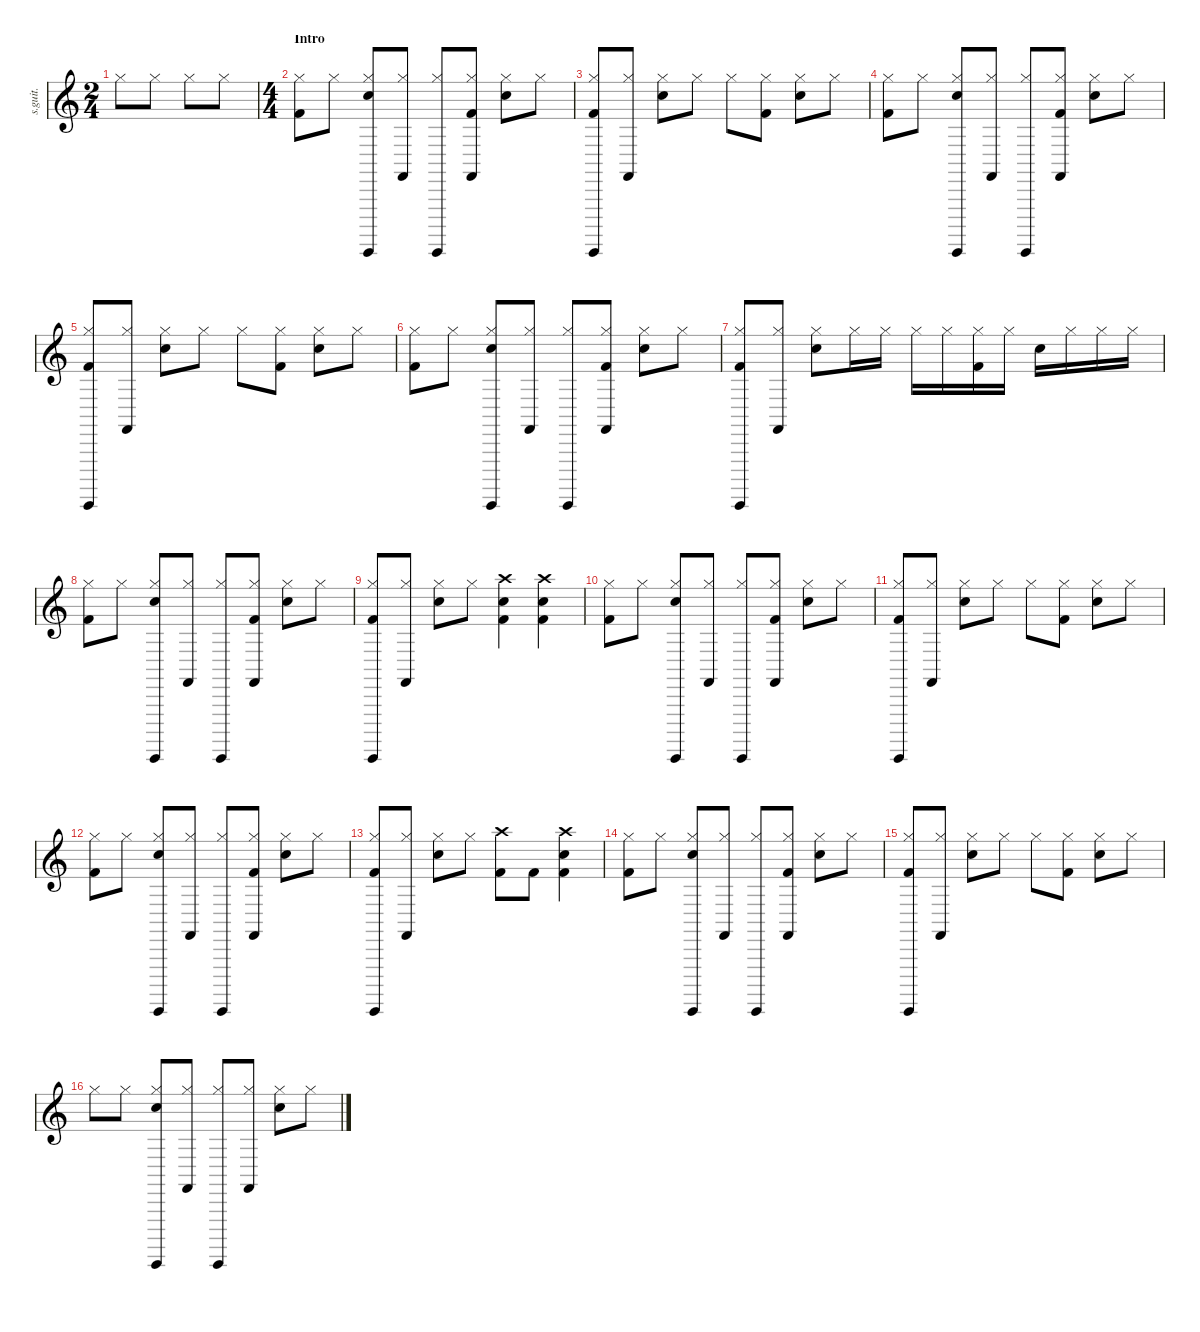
\defaultSystemsLayout 4
\hideDynamics
\bracketExtendMode nobrackets
\track ("Drums (Russel Hobbs)" "s.guit.") {instrument percussion}
\staff {score}
\articulation defaults
\ts (2 4)
\beaming (8 2 2 2 2)
\tempo (139 hide)
\clef g2
\ks c "Hi-Hat (closed)".8{lyrics (0 "") lyrics (1 "") lyrics (2 "") lyrics (3 "") lyrics (4 "") dy f} "Hi-Hat (closed)".8{lyrics (0 "") lyrics (1 "") lyrics (2 "") lyrics (3 "") lyrics (4 "")} "Hi-Hat (closed)".8{lyrics (0 "") lyrics (1 "") lyrics (2 "") lyrics (3 "") lyrics (4 "")} "Hi-Hat (closed)".8{lyrics (0 "") lyrics (1 "") lyrics (2 "") lyrics (3 "") lyrics (4 "")}
|
\ts (4 4)
\beaming (8 2 2 2 2)
\section ("" "Intro")
("Hi-Hat (closed)" "Kick (hit) 2").8{lyrics (0 "") lyrics (1 "") lyrics (2 "") lyrics (3 "") lyrics (4 "")} "Hi-Hat (closed)".8{lyrics (0 "") lyrics (1 "") lyrics (2 "") lyrics (3 "") lyrics (4 "")} ("Hi-Hat (closed)" "Guiro (hit)" "Snare (hit) 2").8{lyrics (0 "") lyrics (1 "") lyrics (2 "") lyrics (3 "") lyrics (4 "") dy ff} ("Hi-Hat (closed)" "Castanets (hit)").8{lyrics (0 "") lyrics (1 "") lyrics (2 "") lyrics (3 "") lyrics (4 "")} ("Hi-Hat (closed)" "Guiro (hit)").8{lyrics (0 "") lyrics (1 "") lyrics (2 "") lyrics (3 "") lyrics (4 "")} ("Hi-Hat (closed)" "Castanets (hit)" "Kick (hit) 2").8{lyrics (0 "") lyrics (1 "") lyrics (2 "") lyrics (3 "") lyrics (4 "")} ("Hi-Hat (closed)" "Snare (hit) 2").8{lyrics (0 "") lyrics (1 "") lyrics (2 "") lyrics (3 "") lyrics (4 "")} "Hi-Hat (closed)".8{lyrics (0 "") lyrics (1 "") lyrics (2 "") lyrics (3 "") lyrics (4 "") dy f} |
("Hi-Hat (closed)" "Guiro (hit)" "Kick (hit) 2").8{lyrics (0 "") lyrics (1 "") lyrics (2 "") lyrics (3 "") lyrics (4 "")} ("Hi-Hat (closed)" "Castanets (hit)").8{lyrics (0 "") lyrics (1 "") lyrics (2 "") lyrics (3 "") lyrics (4 "")} ("Hi-Hat (closed)" "Snare (hit) 2").8{lyrics (0 "") lyrics (1 "") lyrics (2 "") lyrics (3 "") lyrics (4 "")} "Hi-Hat (closed)".8{lyrics (0 "") lyrics (1 "") lyrics (2 "") lyrics (3 "") lyrics (4 "")} "Hi-Hat (closed)".8{lyrics (0 "") lyrics (1 "") lyrics (2 "") lyrics (3 "") lyrics (4 "")} ("Hi-Hat (closed)" "Kick (hit) 2").8{lyrics (0 "") lyrics (1 "") lyrics (2 "") lyrics (3 "") lyrics (4 "")} ("Hi-Hat (closed)" "Snare (hit) 2").8{lyrics (0 "") lyrics (1 "") lyrics (2 "") lyrics (3 "") lyrics (4 "")} "Hi-Hat (closed)".8{lyrics (0 "") lyrics (1 "") lyrics (2 "") lyrics (3 "") lyrics (4 "")} |
("Hi-Hat (closed)" "Kick (hit) 2").8{lyrics (0 "") lyrics (1 "") lyrics (2 "") lyrics (3 "") lyrics (4 "")} "Hi-Hat (closed)".8{lyrics (0 "") lyrics (1 "") lyrics (2 "") lyrics (3 "") lyrics (4 "")} ("Hi-Hat (closed)" "Guiro (hit)" "Snare (hit) 2").8{lyrics (0 "") lyrics (1 "") lyrics (2 "") lyrics (3 "") lyrics (4 "") dy ff} ("Hi-Hat (closed)" "Castanets (hit)").8{lyrics (0 "") lyrics (1 "") lyrics (2 "") lyrics (3 "") lyrics (4 "")} ("Hi-Hat (closed)" "Guiro (hit)").8{lyrics (0 "") lyrics (1 "") lyrics (2 "") lyrics (3 "") lyrics (4 "")} ("Hi-Hat (closed)" "Castanets (hit)" "Kick (hit) 2").8{lyrics (0 "") lyrics (1 "") lyrics (2 "") lyrics (3 "") lyrics (4 "")} ("Hi-Hat (closed)" "Snare (hit) 2").8{lyrics (0 "") lyrics (1 "") lyrics (2 "") lyrics (3 "") lyrics (4 "")} "Hi-Hat (closed)".8{lyrics (0 "") lyrics (1 "") lyrics (2 "") lyrics (3 "") lyrics (4 "") dy f} |
("Hi-Hat (closed)" "Guiro (hit)" "Kick (hit) 2").8{lyrics (0 "") lyrics (1 "") lyrics (2 "") lyrics (3 "") lyrics (4 "")} ("Hi-Hat (closed)" "Castanets (hit)").8{lyrics (0 "") lyrics (1 "") lyrics (2 "") lyrics (3 "") lyrics (4 "")} ("Hi-Hat (closed)" "Snare (hit) 2").8{lyrics (0 "") lyrics (1 "") lyrics (2 "") lyrics (3 "") lyrics (4 "")} "Hi-Hat (closed)".8{lyrics (0 "") lyrics (1 "") lyrics (2 "") lyrics (3 "") lyrics (4 "")} "Hi-Hat (closed)".8{lyrics (0 "") lyrics (1 "") lyrics (2 "") lyrics (3 "") lyrics (4 "")} ("Hi-Hat (closed)" "Kick (hit) 2").8{lyrics (0 "") lyrics (1 "") lyrics (2 "") lyrics (3 "") lyrics (4 "")} ("Hi-Hat (closed)" "Snare (hit) 2").8{lyrics (0 "") lyrics (1 "") lyrics (2 "") lyrics (3 "") lyrics (4 "")} "Hi-Hat (closed)".8{lyrics (0 "") lyrics (1 "") lyrics (2 "") lyrics (3 "") lyrics (4 "")} |
("Hi-Hat (closed)" "Kick (hit) 2").8{lyrics (0 "") lyrics (1 "") lyrics (2 "") lyrics (3 "") lyrics (4 "")} "Hi-Hat (closed)".8{lyrics (0 "") lyrics (1 "") lyrics (2 "") lyrics (3 "") lyrics (4 "")} ("Hi-Hat (closed)" "Guiro (hit)" "Snare (hit) 2").8{lyrics (0 "") lyrics (1 "") lyrics (2 "") lyrics (3 "") lyrics (4 "") dy ff} ("Hi-Hat (closed)" "Castanets (hit)").8{lyrics (0 "") lyrics (1 "") lyrics (2 "") lyrics (3 "") lyrics (4 "")} ("Hi-Hat (closed)" "Guiro (hit)").8{lyrics (0 "") lyrics (1 "") lyrics (2 "") lyrics (3 "") lyrics (4 "")} ("Hi-Hat (closed)" "Castanets (hit)" "Kick (hit) 2").8{lyrics (0 "") lyrics (1 "") lyrics (2 "") lyrics (3 "") lyrics (4 "")} ("Hi-Hat (closed)" "Snare (hit) 2").8{lyrics (0 "") lyrics (1 "") lyrics (2 "") lyrics (3 "") lyrics (4 "")} "Hi-Hat (closed)".8{lyrics (0 "") lyrics (1 "") lyrics (2 "") lyrics (3 "") lyrics (4 "") dy f} |
("Hi-Hat (closed)" "Guiro (hit)" "Kick (hit) 2").8{lyrics (0 "") lyrics (1 "") lyrics (2 "") lyrics (3 "") lyrics (4 "")} ("Hi-Hat (closed)" "Castanets (hit)").8{lyrics (0 "") lyrics (1 "") lyrics (2 "") lyrics (3 "") lyrics (4 "")} ("Hi-Hat (closed)" "Snare (hit) 2").8{lyrics (0 "") lyrics (1 "") lyrics (2 "") lyrics (3 "") lyrics (4 "")} "Hi-Hat (closed)".16{lyrics (0 "") lyrics (1 "") lyrics (2 "") lyrics (3 "") lyrics (4 "")} "Hi-Hat (closed)".16{lyrics (0 "") lyrics (1 "") lyrics (2 "") lyrics (3 "") lyrics (4 "")} "Hi-Hat (closed)".16{lyrics (0 "") lyrics (1 "") lyrics (2 "") lyrics (3 "") lyrics (4 "")} "Hi-Hat (closed)".16{lyrics (0 "") lyrics (1 "") lyrics (2 "") lyrics (3 "") lyrics (4 "")} ("Hi-Hat (closed)" "Kick (hit) 2").16{lyrics (0 "") lyrics (1 "") lyrics (2 "") lyrics (3 "") lyrics (4 "")} "Hi-Hat (closed)".16{lyrics (0 "") lyrics (1 "") lyrics (2 "") lyrics (3 "") lyrics (4 "")} "Snare (hit) 2".16{lyrics (0 "") lyrics (1 "") lyrics (2 "") lyrics (3 "") lyrics (4 "") dy ff} "Hi-Hat (closed)".16{lyrics (0 "") lyrics (1 "") lyrics (2 "") lyrics (3 "") lyrics (4 "") dy f} "Hi-Hat (closed)".16{lyrics (0 "") lyrics (1 "") lyrics (2 "") lyrics (3 "") lyrics (4 "")} "Hi-Hat (closed)".16{lyrics (0 "") lyrics (1 "") lyrics (2 "") lyrics (3 "") lyrics (4 "")} |
("Hi-Hat (closed)" "Kick (hit) 2").8{lyrics (0 "") lyrics (1 "") lyrics (2 "") lyrics (3 "") lyrics (4 "")} "Hi-Hat (closed)".8{lyrics (0 "") lyrics (1 "") lyrics (2 "") lyrics (3 "") lyrics (4 "")} ("Hi-Hat (closed)" "Guiro (hit)" "Snare (hit) 2").8{lyrics (0 "") lyrics (1 "") lyrics (2 "") lyrics (3 "") lyrics (4 "") dy ff} ("Hi-Hat (closed)" "Castanets (hit)").8{lyrics (0 "") lyrics (1 "") lyrics (2 "") lyrics (3 "") lyrics (4 "")} ("Hi-Hat (closed)" "Guiro (hit)").8{lyrics (0 "") lyrics (1 "") lyrics (2 "") lyrics (3 "") lyrics (4 "")} ("Hi-Hat (closed)" "Castanets (hit)" "Kick (hit) 2").8{lyrics (0 "") lyrics (1 "") lyrics (2 "") lyrics (3 "") lyrics (4 "")} ("Hi-Hat (closed)" "Snare (hit) 2").8{lyrics (0 "") lyrics (1 "") lyrics (2 "") lyrics (3 "") lyrics (4 "")} "Hi-Hat (closed)".8{lyrics (0 "") lyrics (1 "") lyrics (2 "") lyrics (3 "") lyrics (4 "") dy f} |
("Hi-Hat (closed)" "Guiro (hit)" "Kick (hit) 2").8{lyrics (0 "") lyrics (1 "") lyrics (2 "") lyrics (3 "") lyrics (4 "")} ("Hi-Hat (closed)" "Castanets (hit)").8{lyrics (0 "") lyrics (1 "") lyrics (2 "") lyrics (3 "") lyrics (4 "")} ("Hi-Hat (closed)" "Snare (hit) 2").8{lyrics (0 "") lyrics (1 "") lyrics (2 "") lyrics (3 "") lyrics (4 "")} "Hi-Hat (closed)".8{lyrics (0 "") lyrics (1 "") lyrics (2 "") lyrics (3 "") lyrics (4 "")} ("Crash high (hit)" "Snare (hit) 2" "Kick (hit) 2").4{lyrics (0 "") lyrics (1 "") lyrics (2 "") lyrics (3 "") lyrics (4 "")} ("Crash high (hit)" "Snare (hit) 2" "Kick (hit) 2").4{lyrics (0 "") lyrics (1 "") lyrics (2 "") lyrics (3 "") lyrics (4 "")} |
("Hi-Hat (closed)" "Kick (hit) 2").8{lyrics (0 "") lyrics (1 "") lyrics (2 "") lyrics (3 "") lyrics (4 "")} "Hi-Hat (closed)".8{lyrics (0 "") lyrics (1 "") lyrics (2 "") lyrics (3 "") lyrics (4 "")} ("Hi-Hat (closed)" "Guiro (hit)" "Snare (hit) 2").8{lyrics (0 "") lyrics (1 "") lyrics (2 "") lyrics (3 "") lyrics (4 "") dy ff} ("Hi-Hat (closed)" "Castanets (hit)").8{lyrics (0 "") lyrics (1 "") lyrics (2 "") lyrics (3 "") lyrics (4 "")} ("Hi-Hat (closed)" "Guiro (hit)").8{lyrics (0 "") lyrics (1 "") lyrics (2 "") lyrics (3 "") lyrics (4 "")} ("Hi-Hat (closed)" "Castanets (hit)" "Kick (hit) 2").8{lyrics (0 "") lyrics (1 "") lyrics (2 "") lyrics (3 "") lyrics (4 "")} ("Hi-Hat (closed)" "Snare (hit) 2").8{lyrics (0 "") lyrics (1 "") lyrics (2 "") lyrics (3 "") lyrics (4 "")} "Hi-Hat (closed)".8{lyrics (0 "") lyrics (1 "") lyrics (2 "") lyrics (3 "") lyrics (4 "") dy f} |
("Hi-Hat (closed)" "Guiro (hit)" "Kick (hit) 2").8{lyrics (0 "") lyrics (1 "") lyrics (2 "") lyrics (3 "") lyrics (4 "")} ("Hi-Hat (closed)" "Castanets (hit)").8{lyrics (0 "") lyrics (1 "") lyrics (2 "") lyrics (3 "") lyrics (4 "")} ("Hi-Hat (closed)" "Snare (hit) 2").8{lyrics (0 "") lyrics (1 "") lyrics (2 "") lyrics (3 "") lyrics (4 "")} "Hi-Hat (closed)".8{lyrics (0 "") lyrics (1 "") lyrics (2 "") lyrics (3 "") lyrics (4 "")} "Hi-Hat (closed)".8{lyrics (0 "") lyrics (1 "") lyrics (2 "") lyrics (3 "") lyrics (4 "")} ("Hi-Hat (closed)" "Kick (hit) 2").8{lyrics (0 "") lyrics (1 "") lyrics (2 "") lyrics (3 "") lyrics (4 "")} ("Hi-Hat (closed)" "Snare (hit) 2").8{lyrics (0 "") lyrics (1 "") lyrics (2 "") lyrics (3 "") lyrics (4 "")} "Hi-Hat (closed)".8{lyrics (0 "") lyrics (1 "") lyrics (2 "") lyrics (3 "") lyrics (4 "")} |
("Hi-Hat (closed)" "Kick (hit) 2").8{lyrics (0 "") lyrics (1 "") lyrics (2 "") lyrics (3 "") lyrics (4 "")} "Hi-Hat (closed)".8{lyrics (0 "") lyrics (1 "") lyrics (2 "") lyrics (3 "") lyrics (4 "")} ("Hi-Hat (closed)" "Guiro (hit)" "Snare (hit) 2").8{lyrics (0 "") lyrics (1 "") lyrics (2 "") lyrics (3 "") lyrics (4 "") dy ff} ("Hi-Hat (closed)" "Castanets (hit)").8{lyrics (0 "") lyrics (1 "") lyrics (2 "") lyrics (3 "") lyrics (4 "")} ("Hi-Hat (closed)" "Guiro (hit)").8{lyrics (0 "") lyrics (1 "") lyrics (2 "") lyrics (3 "") lyrics (4 "")} ("Hi-Hat (closed)" "Castanets (hit)" "Kick (hit) 2").8{lyrics (0 "") lyrics (1 "") lyrics (2 "") lyrics (3 "") lyrics (4 "")} ("Hi-Hat (closed)" "Snare (hit) 2").8{lyrics (0 "") lyrics (1 "") lyrics (2 "") lyrics (3 "") lyrics (4 "")} "Hi-Hat (closed)".8{lyrics (0 "") lyrics (1 "") lyrics (2 "") lyrics (3 "") lyrics (4 "") dy f} |
("Hi-Hat (closed)" "Guiro (hit)" "Kick (hit) 2").8{lyrics (0 "") lyrics (1 "") lyrics (2 "") lyrics (3 "") lyrics (4 "")} ("Hi-Hat (closed)" "Castanets (hit)").8{lyrics (0 "") lyrics (1 "") lyrics (2 "") lyrics (3 "") lyrics (4 "")} ("Hi-Hat (closed)" "Snare (hit) 2").8{lyrics (0 "") lyrics (1 "") lyrics (2 "") lyrics (3 "") lyrics (4 "")} "Hi-Hat (closed)".8{lyrics (0 "") lyrics (1 "") lyrics (2 "") lyrics (3 "") lyrics (4 "")} ("Crash high (hit)" "Kick (hit) 2").8{lyrics (0 "") lyrics (1 "") lyrics (2 "") lyrics (3 "") lyrics (4 "")} "Kick (hit) 2".8{lyrics (0 "") lyrics (1 "") lyrics (2 "") lyrics (3 "") lyrics (4 "") dy fff} ("Crash high (hit)" "Snare (hit) 2" "Kick (hit) 2").4{lyrics (0 "") lyrics (1 "") lyrics (2 "") lyrics (3 "") lyrics (4 "")} |
("Hi-Hat (closed)" "Kick (hit) 2").8{lyrics (0 "") lyrics (1 "") lyrics (2 "") lyrics (3 "") lyrics (4 "")} "Hi-Hat (closed)".8{lyrics (0 "") lyrics (1 "") lyrics (2 "") lyrics (3 "") lyrics (4 "") dy f} ("Hi-Hat (closed)" "Guiro (hit)" "Snare (hit) 2").8{lyrics (0 "") lyrics (1 "") lyrics (2 "") lyrics (3 "") lyrics (4 "") dy ff} ("Hi-Hat (closed)" "Castanets (hit)").8{lyrics (0 "") lyrics (1 "") lyrics (2 "") lyrics (3 "") lyrics (4 "")} ("Hi-Hat (closed)" "Guiro (hit)").8{lyrics (0 "") lyrics (1 "") lyrics (2 "") lyrics (3 "") lyrics (4 "")} ("Hi-Hat (closed)" "Castanets (hit)" "Kick (hit) 2").8{lyrics (0 "") lyrics (1 "") lyrics (2 "") lyrics (3 "") lyrics (4 "")} ("Hi-Hat (closed)" "Snare (hit) 2").8{lyrics (0 "") lyrics (1 "") lyrics (2 "") lyrics (3 "") lyrics (4 "")} "Hi-Hat (closed)".8{lyrics (0 "") lyrics (1 "") lyrics (2 "") lyrics (3 "") lyrics (4 "") dy f} |
("Hi-Hat (closed)" "Guiro (hit)" "Kick (hit) 2").8{lyrics (0 "") lyrics (1 "") lyrics (2 "") lyrics (3 "") lyrics (4 "")} ("Hi-Hat (closed)" "Castanets (hit)").8{lyrics (0 "") lyrics (1 "") lyrics (2 "") lyrics (3 "") lyrics (4 "")} ("Hi-Hat (closed)" "Snare (hit) 2").8{lyrics (0 "") lyrics (1 "") lyrics (2 "") lyrics (3 "") lyrics (4 "")} "Hi-Hat (closed)".8{lyrics (0 "") lyrics (1 "") lyrics (2 "") lyrics (3 "") lyrics (4 "")} "Hi-Hat (closed)".8{lyrics (0 "") lyrics (1 "") lyrics (2 "") lyrics (3 "") lyrics (4 "")} ("Hi-Hat (closed)" "Kick (hit) 2").8{lyrics (0 "") lyrics (1 "") lyrics (2 "") lyrics (3 "") lyrics (4 "")} ("Hi-Hat (closed)" "Snare (hit) 2").8{lyrics (0 "") lyrics (1 "") lyrics (2 "") lyrics (3 "") lyrics (4 "")} "Hi-Hat (closed)".8{lyrics (0 "") lyrics (1 "") lyrics (2 "") lyrics (3 "") lyrics (4 "")} |
"Hi-Hat (closed)".8{lyrics (0 "") lyrics (1 "") lyrics (2 "") lyrics (3 "") lyrics (4 "")} "Hi-Hat (closed)".8{lyrics (0 "") lyrics (1 "") lyrics (2 "") lyrics (3 "") lyrics (4 "")} ("Hi-Hat (closed)" "Guiro (hit)" "Snare (hit) 2").8{lyrics (0 "") lyrics (1 "") lyrics (2 "") lyrics (3 "") lyrics (4 "")} ("Hi-Hat (closed)" "Castanets (hit)").8{lyrics (0 "") lyrics (1 "") lyrics (2 "") lyrics (3 "") lyrics (4 "")} ("Hi-Hat (closed)" "Guiro (hit)").8{lyrics (0 "") lyrics (1 "") lyrics (2 "") lyrics (3 "") lyrics (4 "")} ("Hi-Hat (closed)" "Castanets (hit)").8{lyrics (0 "") lyrics (1 "") lyrics (2 "") lyrics (3 "") lyrics (4 "")} ("Hi-Hat (closed)" "Snare (hit) 2").8{lyrics (0 "") lyrics (1 "") lyrics (2 "") lyrics (3 "") lyrics (4 "")} "Hi-Hat (closed)".8{lyrics (0 "") lyrics (1 "") lyrics (2 "") lyrics (3 "") lyrics (4 "")}
